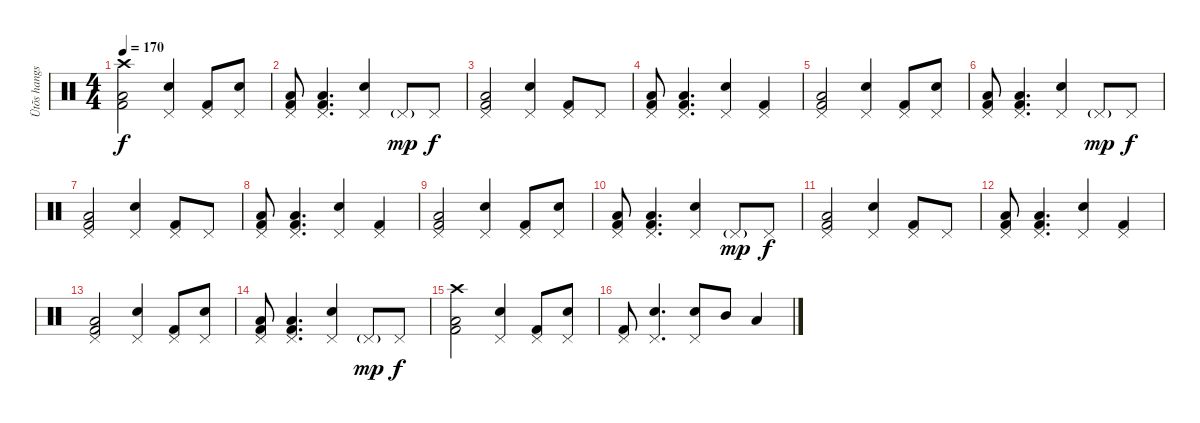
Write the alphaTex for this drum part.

\track ("Ütõs hangszer" "Ütõs hangs") {instrument percussion}
\staff {score}
\articulation defaults
\ts (4 4)
\tempo 170
\clef neutral
\ks c
("Crash high (hit)" "Kick (hit) 2" "Low Floor Tom (hit)").2{dy f} ("Pedal Hi-Hat (hit)" "Electric Snare (hit)").4 ("Pedal Hi-Hat (hit)" "Kick (hit) 2").8 ("Pedal Hi-Hat (hit)" "Electric Snare (hit)").8 |
("Pedal Hi-Hat (hit)" "Kick (hit) 2" "Low Floor Tom (hit)").8 ("Pedal Hi-Hat (hit)" "Kick (hit) 2" "Low Floor Tom (hit)").4{d} ("Pedal Hi-Hat (hit)" "Electric Snare (hit)").4 "Pedal Hi-Hat (hit)"{g}.8{dy mp} "Pedal Hi-Hat (hit)".8{dy f} |
("Pedal Hi-Hat (hit)" "Kick (hit) 2" "Low Floor Tom (hit)").2 ("Pedal Hi-Hat (hit)" "Electric Snare (hit)").4 ("Kick (hit) 2" "Pedal Hi-Hat (hit)").8 "Pedal Hi-Hat (hit)".8 |
("Pedal Hi-Hat (hit)" "Kick (hit) 2" "Low Floor Tom (hit)").8 ("Pedal Hi-Hat (hit)" "Kick (hit) 2" "Low Floor Tom (hit)").4{d} ("Pedal Hi-Hat (hit)" "Electric Snare (hit)").4 ("Kick (hit) 2" "Pedal Hi-Hat (hit)").4 |
("Pedal Hi-Hat (hit)" "Kick (hit) 2" "Low Floor Tom (hit)").2 ("Pedal Hi-Hat (hit)" "Electric Snare (hit)").4 ("Pedal Hi-Hat (hit)" "Kick (hit) 2").8 ("Pedal Hi-Hat (hit)" "Electric Snare (hit)").8 |
("Pedal Hi-Hat (hit)" "Kick (hit) 2" "Low Floor Tom (hit)").8 ("Pedal Hi-Hat (hit)" "Kick (hit) 2" "Low Floor Tom (hit)").4{d} ("Pedal Hi-Hat (hit)" "Electric Snare (hit)").4 "Pedal Hi-Hat (hit)"{g}.8{dy mp} "Pedal Hi-Hat (hit)".8{dy f} |
("Pedal Hi-Hat (hit)" "Kick (hit) 2" "Low Floor Tom (hit)").2 ("Pedal Hi-Hat (hit)" "Electric Snare (hit)").4 ("Kick (hit) 2" "Pedal Hi-Hat (hit)").8 "Pedal Hi-Hat (hit)".8 |
("Pedal Hi-Hat (hit)" "Kick (hit) 2" "Low Floor Tom (hit)").8 ("Pedal Hi-Hat (hit)" "Kick (hit) 2" "Low Floor Tom (hit)").4{d} ("Pedal Hi-Hat (hit)" "Electric Snare (hit)").4 ("Kick (hit) 2" "Pedal Hi-Hat (hit)").4 |
("Pedal Hi-Hat (hit)" "Kick (hit) 2" "Low Floor Tom (hit)").2 ("Pedal Hi-Hat (hit)" "Electric Snare (hit)").4 ("Pedal Hi-Hat (hit)" "Kick (hit) 2").8 ("Pedal Hi-Hat (hit)" "Electric Snare (hit)").8 |
("Pedal Hi-Hat (hit)" "Kick (hit) 2" "Low Floor Tom (hit)").8 ("Pedal Hi-Hat (hit)" "Kick (hit) 2" "Low Floor Tom (hit)").4{d} ("Pedal Hi-Hat (hit)" "Electric Snare (hit)").4 "Pedal Hi-Hat (hit)"{g}.8{dy mp} "Pedal Hi-Hat (hit)".8{dy f} |
("Pedal Hi-Hat (hit)" "Kick (hit) 2" "Low Floor Tom (hit)").2 ("Pedal Hi-Hat (hit)" "Electric Snare (hit)").4 ("Kick (hit) 2" "Pedal Hi-Hat (hit)").8 "Pedal Hi-Hat (hit)".8 |
("Pedal Hi-Hat (hit)" "Kick (hit) 2" "Low Floor Tom (hit)").8 ("Pedal Hi-Hat (hit)" "Kick (hit) 2" "Low Floor Tom (hit)").4{d} ("Pedal Hi-Hat (hit)" "Electric Snare (hit)").4 ("Kick (hit) 2" "Pedal Hi-Hat (hit)").4 |
("Pedal Hi-Hat (hit)" "Kick (hit) 2" "Low Floor Tom (hit)").2 ("Pedal Hi-Hat (hit)" "Electric Snare (hit)").4 ("Pedal Hi-Hat (hit)" "Kick (hit) 2").8 ("Pedal Hi-Hat (hit)" "Electric Snare (hit)").8 |
("Pedal Hi-Hat (hit)" "Kick (hit) 2" "Low Floor Tom (hit)").8 ("Pedal Hi-Hat (hit)" "Kick (hit) 2" "Low Floor Tom (hit)").4{d} ("Pedal Hi-Hat (hit)" "Electric Snare (hit)").4 "Pedal Hi-Hat (hit)"{g}.8{dy mp} "Pedal Hi-Hat (hit)".8{dy f} |
("Crash high (hit)" "Kick (hit) 2" "Low Floor Tom (hit)").2 ("Pedal Hi-Hat (hit)" "Electric Snare (hit)").4 ("Kick (hit) 2" "Pedal Hi-Hat (hit)").8 ("Electric Snare (hit)" "Pedal Hi-Hat (hit)").8 |
("Kick (hit) 2" "Pedal Hi-Hat (hit)").8 ("Electric Snare (hit)" "Pedal Hi-Hat (hit)").4{d} ("Electric Snare (hit)" "Pedal Hi-Hat (hit)").8 "Mid Tom (hit)".8 "Low Tom (hit)".4
